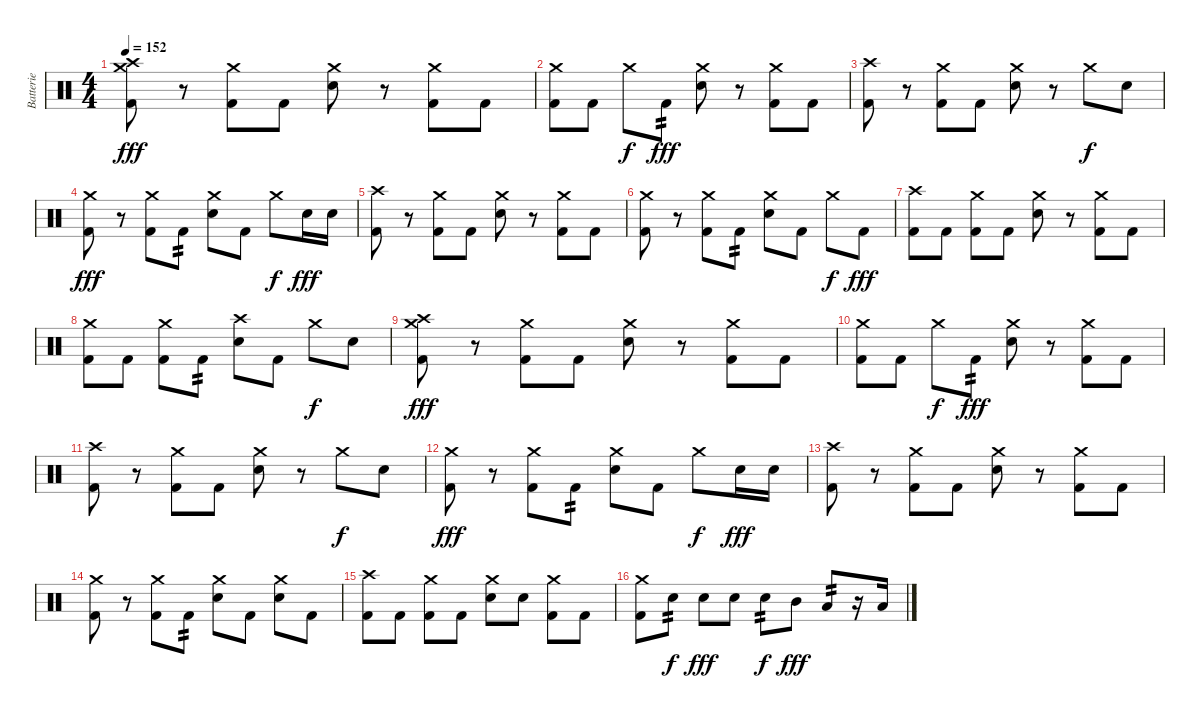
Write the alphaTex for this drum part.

\track ("Batterie" "Batterie") {instrument percussion}
\staff {score}
\articulation defaults
\ts (4 4)
\tempo 152
\clef neutral
\ks c
("Crash high (hit)" "Crash medium (hit)" "Kick (hit) 2").8{dy fff} r.8 ("Crash medium (hit)" "Kick (hit) 2").8 "Kick (hit) 2".8 ("Crash medium (hit)" "Electric Snare (hit)").8 r.8 ("Crash medium (hit)" "Kick (hit) 2").8 "Kick (hit) 2".8 |
("Crash medium (hit)" "Kick (hit) 2").8 "Kick (hit) 2".8 "Crash medium (hit)".8{dy f} "Kick (hit) 2".8{tp 2 dy fff} ("Crash medium (hit)" "Electric Snare (hit)").8 r.8 ("Crash medium (hit)" "Kick (hit) 2").8 "Kick (hit) 2".8 |
("Crash high (hit)" "Kick (hit) 2").8 r.8 ("Crash medium (hit)" "Kick (hit) 2").8 "Kick (hit) 2".8 ("Crash medium (hit)" "Electric Snare (hit)").8 r.8 "Crash medium (hit)".8{dy f} "Electric Snare (hit)".8 |
("Crash medium (hit)" "Kick (hit) 2").8{dy fff} r.8 ("Crash medium (hit)" "Kick (hit) 2").8 "Kick (hit) 2".8{tp 2} ("Crash medium (hit)" "Electric Snare (hit)").8 "Kick (hit) 2".8 "Crash medium (hit)".8{dy f} "Electric Snare (hit)".16{dy fff} "Electric Snare (hit)".16 |
("Crash high (hit)" "Kick (hit) 2").8 r.8 ("Crash medium (hit)" "Kick (hit) 2").8 "Kick (hit) 2".8 ("Crash medium (hit)" "Electric Snare (hit)").8 r.8 ("Crash medium (hit)" "Kick (hit) 2").8 "Kick (hit) 2".8 |
("Crash medium (hit)" "Kick (hit) 2").8 r.8 ("Crash medium (hit)" "Kick (hit) 2").8 "Kick (hit) 2".8{tp 2} ("Crash medium (hit)" "Electric Snare (hit)").8 "Kick (hit) 2".8 "Crash medium (hit)".8{dy f} "Kick (hit) 2".8{dy fff} |
("Crash high (hit)" "Kick (hit) 2").8 "Kick (hit) 2".8 ("Crash medium (hit)" "Kick (hit) 2").8 "Kick (hit) 2".8 ("Crash medium (hit)" "Electric Snare (hit)").8 r.8 ("Crash medium (hit)" "Kick (hit) 2").8 "Kick (hit) 2".8 |
("Crash medium (hit)" "Kick (hit) 2").8 "Kick (hit) 2".8 ("Crash medium (hit)" "Kick (hit) 2").8 "Kick (hit) 2".8{tp 2} ("Crash high (hit)" "Electric Snare (hit)").8 "Kick (hit) 2".8 "Crash medium (hit)".8{dy f} "Electric Snare (hit)".8 |
("Crash high (hit)" "Crash medium (hit)" "Kick (hit) 2").8{dy fff} r.8 ("Crash medium (hit)" "Kick (hit) 2").8 "Kick (hit) 2".8 ("Crash medium (hit)" "Electric Snare (hit)").8 r.8 ("Crash medium (hit)" "Kick (hit) 2").8 "Kick (hit) 2".8 |
("Crash medium (hit)" "Kick (hit) 2").8 "Kick (hit) 2".8 "Crash medium (hit)".8{dy f} "Kick (hit) 2".8{tp 2 dy fff} ("Crash medium (hit)" "Electric Snare (hit)").8 r.8 ("Crash medium (hit)" "Kick (hit) 2").8 "Kick (hit) 2".8 |
("Crash high (hit)" "Kick (hit) 2").8 r.8 ("Crash medium (hit)" "Kick (hit) 2").8 "Kick (hit) 2".8 ("Crash medium (hit)" "Electric Snare (hit)").8 r.8 "Crash medium (hit)".8{dy f} "Electric Snare (hit)".8 |
("Crash medium (hit)" "Kick (hit) 2").8{dy fff} r.8 ("Crash medium (hit)" "Kick (hit) 2").8 "Kick (hit) 2".8{tp 2} ("Crash medium (hit)" "Electric Snare (hit)").8 "Kick (hit) 2".8 "Crash medium (hit)".8{dy f} "Electric Snare (hit)".16{dy fff} "Electric Snare (hit)".16 |
("Crash high (hit)" "Kick (hit) 2").8 r.8 ("Crash medium (hit)" "Kick (hit) 2").8 "Kick (hit) 2".8 ("Crash medium (hit)" "Electric Snare (hit)").8 r.8 ("Crash medium (hit)" "Kick (hit) 2").8 "Kick (hit) 2".8 |
("Crash medium (hit)" "Kick (hit) 2").8 r.8 ("Crash medium (hit)" "Kick (hit) 2").8 "Kick (hit) 2".8{tp 2} ("Crash medium (hit)" "Electric Snare (hit)").8 "Kick (hit) 2".8 ("Crash medium (hit)" "Electric Snare (hit)").8 "Kick (hit) 2".8 |
("Crash high (hit)" "Kick (hit) 2").8 "Kick (hit) 2".8 ("Crash medium (hit)" "Kick (hit) 2").8 "Kick (hit) 2".8 ("Crash medium (hit)" "Electric Snare (hit)").8 "Electric Snare (hit)".8 ("Crash medium (hit)" "Kick (hit) 2").8 "Kick (hit) 2".8 |
("Crash medium (hit)" "Kick (hit) 2").8 "Electric Snare (hit)".8{tp 2 dy f} "Electric Snare (hit)".8{dy fff} "Electric Snare (hit)".8 "Electric Snare (hit)".8{tp 2 dy f} "Mid Tom (hit)".8{dy fff} "Low Tom (hit)".8{tp 2} r.16 "Low Tom (hit)".16
